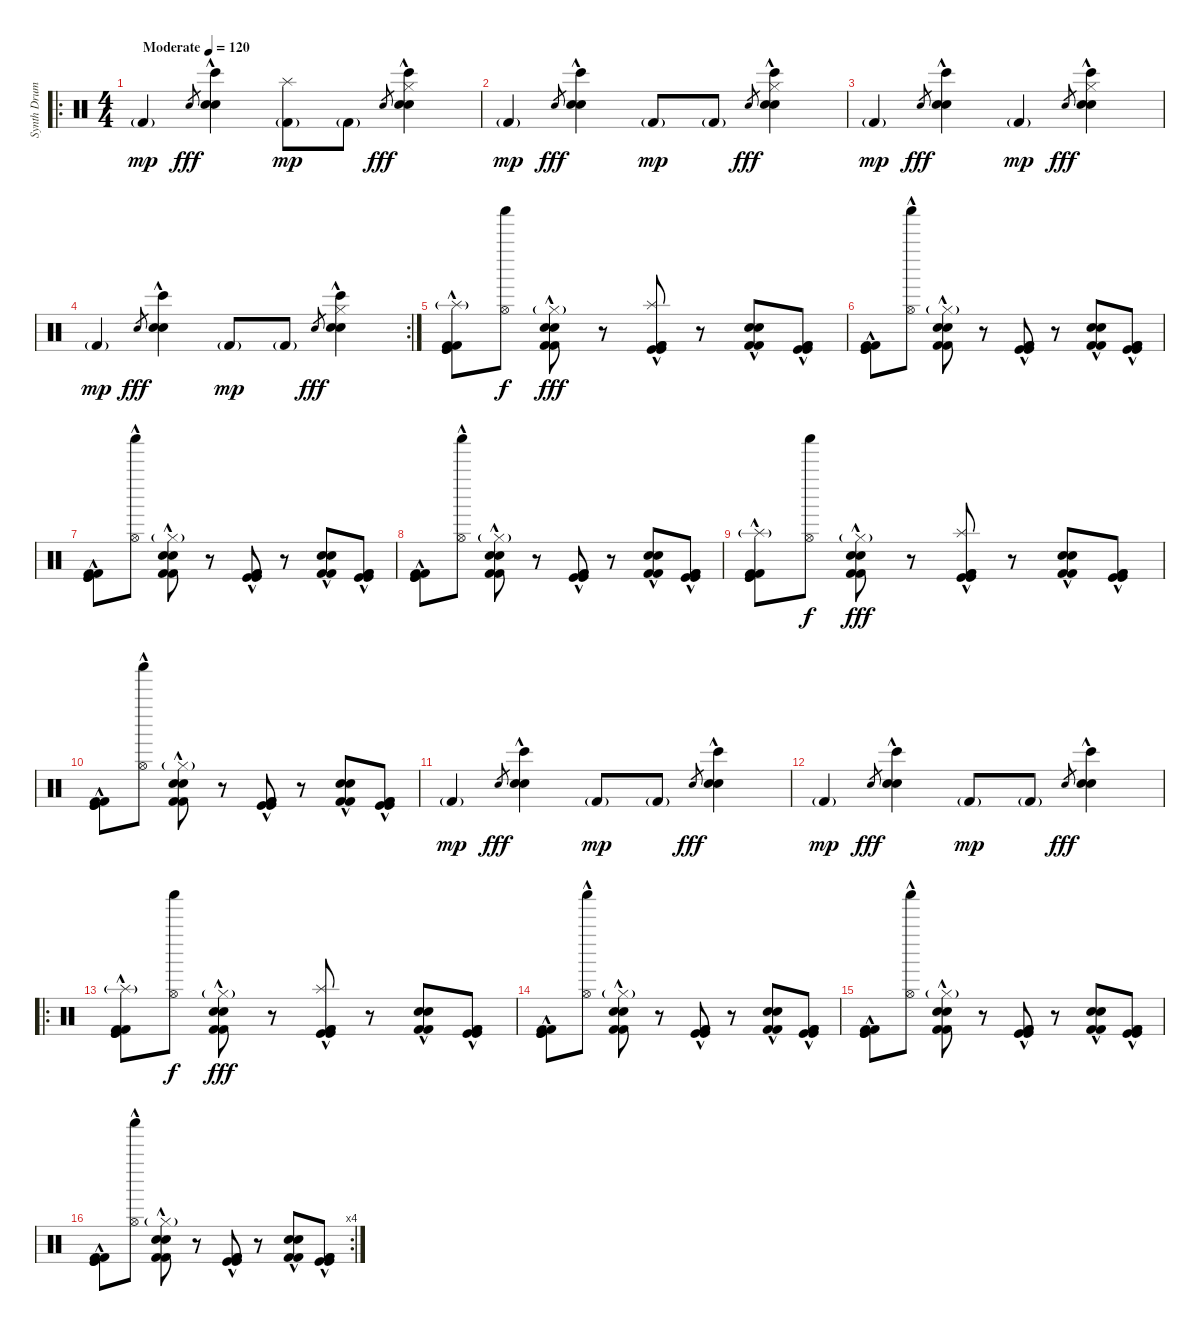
\track ("Synth Drum" "Synth Drum") {instrument percussion}
\staff {score}
\articulation defaults
\ro
\ts (4 4)
\tempo (120 "Moderate")
\clef neutral
\ks c "Kick (hit) 2"{g}.4{dy mp} "Snare (hit)".8{gr dy fff}
("Electric Snare (hit)"{hac} "Bongo High (hit)"{hac} "Hand Clap (hit)"{hac}).4 ("Splash (hit)" "Kick (hit) 2"{g}).8{dy mp} "Kick (hit) 2"{g}.8 "Snare (hit)".8{gr dy fff} ("Hi-Hat (closed)" "Electric Snare (hit)"{hac} "Bongo High (hit)"{hac} "Hand Clap (hit)"{hac}).4 |
"Kick (hit) 2"{g}.4{dy mp} "Snare (hit)".8{gr dy fff} ("Electric Snare (hit)"{hac} "Bongo High (hit)"{hac} "Hand Clap (hit)"{hac}).4 "Kick (hit) 2"{g}.8{dy mp} "Kick (hit) 2"{g}.8 "Snare (hit)".8{gr dy fff} ("Hi-Hat (closed)" "Electric Snare (hit)"{hac} "Bongo High (hit)"{hac} "Hand Clap (hit)"{hac}).4 |
"Kick (hit) 2"{g}.4{dy mp} "Snare (hit)".8{gr dy fff} ("Electric Snare (hit)"{hac} "Bongo High (hit)"{hac} "Hand Clap (hit)"{hac}).4 "Kick (hit) 2"{g}.4{dy mp} "Snare (hit)".8{gr dy fff} ("Hi-Hat (closed)" "Electric Snare (hit)"{hac} "Bongo High (hit)"{hac} "Hand Clap (hit)"{hac}).4 |
\rc 2 "Kick (hit) 2"{g}.4{dy mp} "Snare (hit)".8{gr dy fff}
("Electric Snare (hit)"{hac} "Bongo High (hit)"{hac} "Hand Clap (hit)"{hac}).4 "Kick (hit) 2"{g}.8{dy mp} "Kick (hit) 2"{g}.8 "Snare (hit)".8{gr dy fff} ("Hi-Hat (closed)" "Electric Snare (hit)"{hac} "Bongo High (hit)"{hac} "Hand Clap (hit)"{hac}).4 |
("Splash (hit)"{g} "Kick (hit)"{hac} "Kick (hit) 2"{hac} "Kick (hit)"{hac} "Kick (hit) 2"{hac}).8 ("Shaker (hit)" "Hi-Hat (open)").8{dy f} ("Hi-Hat (closed)"{g} "Snare (hit) 2"{hac} "Electric Snare (hit)"{hac} "Kick (hit) 2"{hac} "Kick (hit) 2"{hac}).8{dy fff} r.8 ("Splash (hit)" "Kick (hit)"{hac} "Kick (hit)"{hac} "Kick (hit) 2"{hac} "Kick (hit) 2"{hac}).8 r.8 ("Snare (hit) 2"{hac} "Electric Snare (hit)"{hac} "Kick (hit) 2"{hac} "Kick (hit) 2"{hac}).8 ("Kick (hit)"{hac} "Kick (hit)"{hac} "Kick (hit) 2"{hac} "Kick (hit) 2"{hac}).8 |
("Kick (hit)"{hac} "Kick (hit) 2"{hac} "Kick (hit)"{hac} "Kick (hit) 2"{hac}).8 ("Shaker (hit)"{hac} "Hi-Hat (open)"{hac}).8 ("Hi-Hat (closed)"{g} "Snare (hit) 2"{hac} "Electric Snare (hit)"{hac} "Kick (hit) 2"{hac} "Kick (hit) 2"{hac}).8 r.8 ("Kick (hit)" "Kick (hit)"{hac} "Kick (hit) 2"{hac} "Kick (hit) 2"{hac}).8 r.8 ("Snare (hit) 2"{hac} "Electric Snare (hit)"{hac} "Kick (hit) 2"{hac} "Kick (hit) 2"{hac}).8 ("Kick (hit)"{hac} "Kick (hit)"{hac} "Kick (hit) 2"{hac} "Kick (hit) 2"{hac}).8 |
("Kick (hit)"{hac} "Kick (hit) 2"{hac} "Kick (hit)"{hac} "Kick (hit) 2"{hac}).8 ("Shaker (hit)"{hac} "Hi-Hat (open)"{hac}).8 ("Hi-Hat (closed)"{g} "Snare (hit) 2"{hac} "Electric Snare (hit)"{hac} "Kick (hit) 2"{hac} "Kick (hit) 2"{hac}).8 r.8 ("Kick (hit)"{hac} "Kick (hit)"{hac} "Kick (hit) 2"{hac} "Kick (hit) 2"{hac}).8 r.8 ("Snare (hit) 2"{hac} "Electric Snare (hit)"{hac} "Kick (hit) 2"{hac} "Kick (hit) 2"{hac}).8 ("Kick (hit)"{hac} "Kick (hit)"{hac} "Kick (hit) 2"{hac} "Kick (hit) 2"{hac}).8 |
("Kick (hit)"{hac} "Kick (hit) 2"{hac} "Kick (hit)"{hac} "Kick (hit) 2"{hac}).8 ("Shaker (hit)"{hac} "Hi-Hat (open)"{hac}).8 ("Hi-Hat (closed)"{g} "Snare (hit) 2"{hac} "Electric Snare (hit)"{hac} "Kick (hit) 2"{hac} "Kick (hit) 2"{hac}).8 r.8 ("Kick (hit)"{hac} "Kick (hit)"{hac} "Kick (hit) 2"{hac} "Kick (hit) 2"{hac}).8 r.8 ("Snare (hit) 2"{hac} "Electric Snare (hit)"{hac} "Kick (hit) 2"{hac} "Kick (hit) 2"{hac}).8 ("Kick (hit)"{hac} "Kick (hit)"{hac} "Kick (hit) 2"{hac} "Kick (hit) 2"{hac}).8 |
("Splash (hit)"{g} "Kick (hit)"{hac} "Kick (hit) 2"{hac} "Kick (hit)"{hac} "Kick (hit) 2"{hac}).8 ("Shaker (hit)" "Hi-Hat (open)").8{dy f} ("Hi-Hat (closed)"{g} "Snare (hit) 2"{hac} "Electric Snare (hit)"{hac} "Kick (hit) 2"{hac} "Kick (hit) 2"{hac}).8{dy fff} r.8 ("Splash (hit)" "Kick (hit)"{hac} "Kick (hit)"{hac} "Kick (hit) 2"{hac} "Kick (hit) 2"{hac}).8 r.8 ("Snare (hit) 2"{hac} "Electric Snare (hit)"{hac} "Kick (hit) 2"{hac} "Kick (hit) 2"{hac}).8 ("Kick (hit)"{hac} "Kick (hit)"{hac} "Kick (hit) 2"{hac} "Kick (hit) 2"{hac}).8 |
("Kick (hit)"{hac} "Kick (hit) 2"{hac} "Kick (hit)"{hac} "Kick (hit) 2"{hac}).8 ("Shaker (hit)"{hac} "Hi-Hat (open)"{hac}).8 ("Hi-Hat (closed)"{g} "Snare (hit) 2"{hac} "Electric Snare (hit)"{hac} "Kick (hit) 2"{hac} "Kick (hit) 2"{hac}).8 r.8 ("Kick (hit)" "Kick (hit)"{hac} "Kick (hit) 2"{hac} "Kick (hit) 2"{hac}).8 r.8 ("Snare (hit) 2"{hac} "Electric Snare (hit)"{hac} "Kick (hit) 2"{hac} "Kick (hit) 2"{hac}).8 ("Kick (hit)"{hac} "Kick (hit)"{hac} "Kick (hit) 2"{hac} "Kick (hit) 2"{hac}).8 |
"Kick (hit) 2"{g}.4{dy mp} "Snare (hit)".8{gr dy fff} ("Electric Snare (hit)"{hac} "Bongo High (hit)"{hac} "Hand Clap (hit)"{hac}).4 "Kick (hit) 2"{g}.8{dy mp} "Kick (hit) 2"{g}.8 "Snare (hit)".8{gr dy fff} ("Electric Snare (hit)"{hac} "Bongo High (hit)"{hac} "Hand Clap (hit)"{hac}).4 |
"Kick (hit) 2"{g}.4{dy mp} "Snare (hit)".8{gr dy fff} ("Electric Snare (hit)"{hac} "Bongo High (hit)"{hac} "Hand Clap (hit)"{hac}).4 "Kick (hit) 2"{g}.8{dy mp} "Kick (hit) 2"{g}.8 "Snare (hit)".8{gr dy fff} ("Electric Snare (hit)"{hac} "Bongo High (hit)"{hac} "Hand Clap (hit)"{hac}).4 |
\ro
("Splash (hit)"{g} "Kick (hit)"{hac} "Kick (hit) 2"{hac} "Kick (hit)"{hac} "Kick (hit) 2"{hac}).8 ("Shaker (hit)" "Hi-Hat (open)").8{dy f} ("Hi-Hat (closed)"{g} "Snare (hit) 2"{hac} "Electric Snare (hit)"{hac} "Kick (hit) 2"{hac} "Kick (hit) 2"{hac}).8{dy fff} r.8 ("Splash (hit)" "Kick (hit)"{hac} "Kick (hit)"{hac} "Kick (hit) 2"{hac} "Kick (hit) 2"{hac}).8 r.8 ("Snare (hit) 2"{hac} "Electric Snare (hit)"{hac} "Kick (hit) 2"{hac} "Kick (hit) 2"{hac}).8 ("Kick (hit)"{hac} "Kick (hit)"{hac} "Kick (hit) 2"{hac} "Kick (hit) 2"{hac}).8 |
("Kick (hit)"{hac} "Kick (hit) 2"{hac} "Kick (hit)"{hac} "Kick (hit) 2"{hac}).8 ("Shaker (hit)"{hac} "Hi-Hat (open)"{hac}).8 ("Hi-Hat (closed)"{g} "Snare (hit) 2"{hac} "Electric Snare (hit)"{hac} "Kick (hit) 2"{hac} "Kick (hit) 2"{hac}).8 r.8 ("Kick (hit)" "Kick (hit)"{hac} "Kick (hit) 2"{hac} "Kick (hit) 2"{hac}).8 r.8 ("Snare (hit) 2"{hac} "Electric Snare (hit)"{hac} "Kick (hit) 2"{hac} "Kick (hit) 2"{hac}).8 ("Kick (hit)"{hac} "Kick (hit)"{hac} "Kick (hit) 2"{hac} "Kick (hit) 2"{hac}).8 |
("Kick (hit)"{hac} "Kick (hit) 2"{hac} "Kick (hit)"{hac} "Kick (hit) 2"{hac}).8 ("Shaker (hit)"{hac} "Hi-Hat (open)"{hac}).8 ("Hi-Hat (closed)"{g} "Snare (hit) 2"{hac} "Electric Snare (hit)"{hac} "Kick (hit) 2"{hac} "Kick (hit) 2"{hac}).8 r.8 ("Kick (hit)"{hac} "Kick (hit)"{hac} "Kick (hit) 2"{hac} "Kick (hit) 2"{hac}).8 r.8 ("Snare (hit) 2"{hac} "Electric Snare (hit)"{hac} "Kick (hit) 2"{hac} "Kick (hit) 2"{hac}).8 ("Kick (hit)"{hac} "Kick (hit)"{hac} "Kick (hit) 2"{hac} "Kick (hit) 2"{hac}).8 |
\rc 4
("Kick (hit)"{hac} "Kick (hit) 2"{hac} "Kick (hit)"{hac} "Kick (hit) 2"{hac}).8 ("Shaker (hit)"{hac} "Hi-Hat (open)"{hac}).8 ("Hi-Hat (closed)"{g} "Snare (hit) 2"{hac} "Electric Snare (hit)"{hac} "Kick (hit) 2"{hac} "Kick (hit) 2"{hac}).8 r.8 ("Kick (hit)"{hac} "Kick (hit)"{hac} "Kick (hit) 2"{hac} "Kick (hit) 2"{hac}).8 r.8 ("Snare (hit) 2"{hac} "Electric Snare (hit)"{hac} "Kick (hit) 2"{hac} "Kick (hit) 2"{hac}).8 ("Kick (hit)"{hac} "Kick (hit)"{hac} "Kick (hit) 2"{hac} "Kick (hit) 2"{hac}).8
